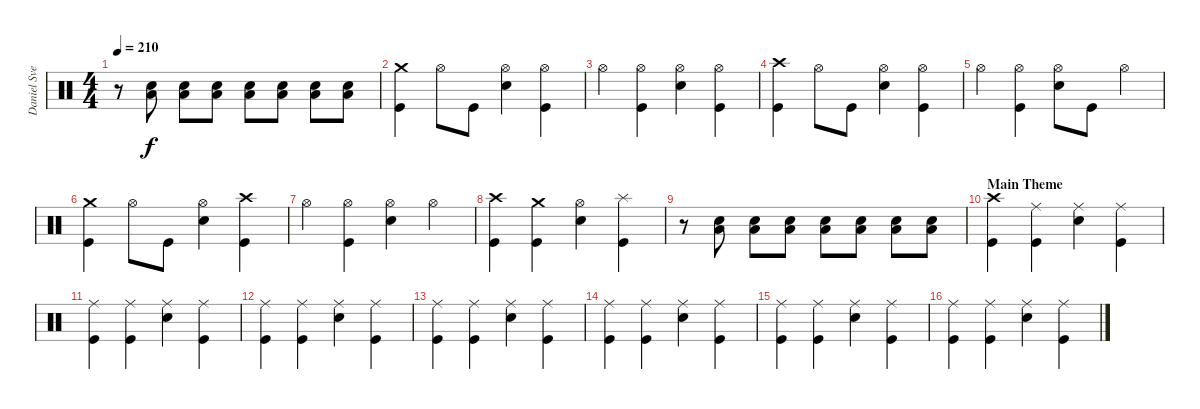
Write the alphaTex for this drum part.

\track ("Daniel Svensson" "Daniel Sve") {instrument percussion}
\staff {score}
\articulation defaults
\ts (4 4)
\tempo 210
\clef neutral
\ks c
r.8{dy f} ("Low Floor Tom (hit)" "Electric Snare (hit)").8 ("Low Floor Tom (hit)" "Electric Snare (hit)").8 ("Low Floor Tom (hit)" "Electric Snare (hit)").8 ("Low Floor Tom (hit)" "Electric Snare (hit)").8 ("Low Floor Tom (hit)" "Electric Snare (hit)").8 ("Low Floor Tom (hit)" "Electric Snare (hit)").8 ("Low Floor Tom (hit)" "Electric Snare (hit)").8 |
("Crash medium (hit)" "Kick (hit)").4 "Hi-Hat (open)".8 "Kick (hit)".8 ("Hi-Hat (open)" "Electric Snare (hit)").4 ("Hi-Hat (open)" "Kick (hit)").4 |
"Hi-Hat (open)".4 ("Hi-Hat (open)" "Kick (hit)").4 ("Hi-Hat (open)" "Electric Snare (hit)").4 ("Hi-Hat (open)" "Kick (hit)").4 |
("Crash high (hit)" "Kick (hit)").4 "Hi-Hat (open)".8 "Kick (hit)".8 ("Hi-Hat (open)" "Electric Snare (hit)").4 ("Hi-Hat (open)" "Kick (hit)").4 |
"Hi-Hat (open)".4 ("Hi-Hat (open)" "Kick (hit)").4 ("Hi-Hat (open)" "Electric Snare (hit)").8 "Kick (hit)".8 "Hi-Hat (open)".4 |
("Crash medium (hit)" "Kick (hit)").4 "Hi-Hat (open)".8 "Kick (hit)".8 ("Hi-Hat (open)" "Electric Snare (hit)").4 ("Crash high (hit)" "Kick (hit)").4 |
"Hi-Hat (open)".4 ("Hi-Hat (open)" "Kick (hit)").4 ("Hi-Hat (open)" "Electric Snare (hit)").4 "Hi-Hat (open)".4 |
("Crash high (hit)" "Kick (hit)").4 ("Crash medium (hit)" "Kick (hit)").4 ("Hi-Hat (open)" "Electric Snare (hit)").4 ("Splash (hit)" "Kick (hit)").4 |
r.8 ("Low Floor Tom (hit)" "Electric Snare (hit)").8 ("Low Floor Tom (hit)" "Electric Snare (hit)").8 ("Low Floor Tom (hit)" "Electric Snare (hit)").8 ("Low Floor Tom (hit)" "Electric Snare (hit)").8 ("Low Floor Tom (hit)" "Electric Snare (hit)").8 ("Low Floor Tom (hit)" "Electric Snare (hit)").8 ("Low Floor Tom (hit)" "Electric Snare (hit)").8 |
\section ("" "Main Theme")
("Crash high (hit)" "Kick (hit)").4 ("Ride (middle)" "Kick (hit)").4 ("Ride (middle)" "Electric Snare (hit)").4 ("Ride (middle)" "Kick (hit)").4 |
("Ride (middle)" "Kick (hit)").4 ("Ride (middle)" "Kick (hit)").4 ("Ride (middle)" "Electric Snare (hit)").4 ("Ride (middle)" "Kick (hit)").4 |
("Ride (middle)" "Kick (hit)").4 ("Ride (middle)" "Kick (hit)").4 ("Ride (middle)" "Electric Snare (hit)").4 ("Ride (middle)" "Kick (hit)").4 |
("Ride (middle)" "Kick (hit)").4 ("Ride (middle)" "Kick (hit)").4 ("Ride (middle)" "Electric Snare (hit)").4 ("Ride (middle)" "Kick (hit)").4 |
("Ride (middle)" "Kick (hit)").4 ("Ride (middle)" "Kick (hit)").4 ("Ride (middle)" "Electric Snare (hit)").4 ("Ride (middle)" "Kick (hit)").4 |
("Ride (middle)" "Kick (hit)").4 ("Ride (middle)" "Kick (hit)").4 ("Ride (middle)" "Electric Snare (hit)").4 ("Ride (middle)" "Kick (hit)").4 |
("Ride (middle)" "Kick (hit)").4 ("Ride (middle)" "Kick (hit)").4 ("Ride (middle)" "Electric Snare (hit)").4 ("Ride (middle)" "Kick (hit)").4
